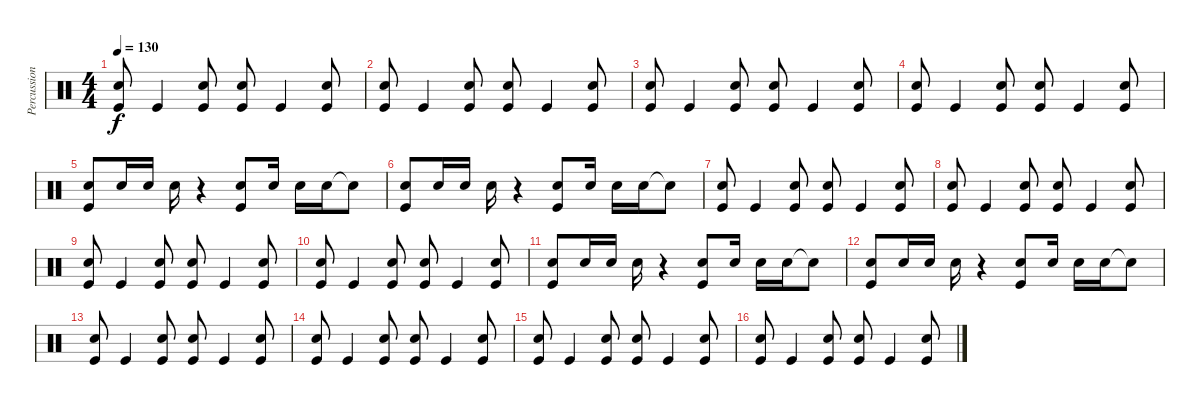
\track ("Percussion" "Percussion") {instrument percussion}
\staff {score}
\articulation defaults
\ts (4 4)
\tempo 130
\clef neutral
\ks c
("Kick (hit)" "Snare (hit) 2").8{dy f} "Kick (hit)".4 ("Kick (hit)" "Snare (hit) 2").8 ("Kick (hit)" "Snare (hit) 2").8 "Kick (hit)".4 ("Kick (hit)" "Snare (hit) 2").8 |
("Kick (hit)" "Snare (hit) 2").8 "Kick (hit)".4 ("Kick (hit)" "Snare (hit) 2").8 ("Kick (hit)" "Snare (hit) 2").8 "Kick (hit)".4 ("Kick (hit)" "Snare (hit) 2").8 |
("Kick (hit)" "Snare (hit) 2").8 "Kick (hit)".4 ("Kick (hit)" "Snare (hit) 2").8 ("Kick (hit)" "Snare (hit) 2").8 "Kick (hit)".4 ("Kick (hit)" "Snare (hit) 2").8 |
("Kick (hit)" "Snare (hit) 2").8 "Kick (hit)".4 ("Kick (hit)" "Snare (hit) 2").8 ("Kick (hit)" "Snare (hit) 2").8 "Kick (hit)".4 ("Kick (hit)" "Snare (hit) 2").8 |
("Kick (hit)" "Snare (hit) 2").8 "Snare (hit) 2".16 "Snare (hit) 2".16 "Snare (hit) 2".16 r.4 ("Kick (hit)" "Snare (hit) 2").8 "Snare (hit) 2".16 "Snare (hit) 2".16 "Snare (hit) 2".16 "Snare (hit)"{t}.8 |
("Kick (hit)" "Snare (hit) 2").8 "Snare (hit) 2".16 "Snare (hit) 2".16 "Snare (hit) 2".16 r.4 ("Kick (hit)" "Snare (hit) 2").8 "Snare (hit) 2".16 "Snare (hit) 2".16 "Snare (hit) 2".16 "Snare (hit)"{t}.8 |
("Kick (hit)" "Snare (hit) 2").8 "Kick (hit)".4 ("Kick (hit)" "Snare (hit) 2").8 ("Kick (hit)" "Snare (hit) 2").8 "Kick (hit)".4 ("Kick (hit)" "Snare (hit) 2").8 |
("Kick (hit)" "Snare (hit) 2").8 "Kick (hit)".4 ("Kick (hit)" "Snare (hit) 2").8 ("Kick (hit)" "Snare (hit) 2").8 "Kick (hit)".4 ("Kick (hit)" "Snare (hit) 2").8 |
("Kick (hit)" "Snare (hit) 2").8 "Kick (hit)".4 ("Kick (hit)" "Snare (hit) 2").8 ("Kick (hit)" "Snare (hit) 2").8 "Kick (hit)".4 ("Kick (hit)" "Snare (hit) 2").8 |
("Kick (hit)" "Snare (hit) 2").8 "Kick (hit)".4 ("Kick (hit)" "Snare (hit) 2").8 ("Kick (hit)" "Snare (hit) 2").8 "Kick (hit)".4 ("Kick (hit)" "Snare (hit) 2").8 |
("Kick (hit)" "Snare (hit) 2").8 "Snare (hit) 2".16 "Snare (hit) 2".16 "Snare (hit) 2".16 r.4 ("Kick (hit)" "Snare (hit) 2").8 "Snare (hit) 2".16 "Snare (hit) 2".16 "Snare (hit) 2".16 "Snare (hit)"{t}.8 |
("Kick (hit)" "Snare (hit) 2").8 "Snare (hit) 2".16 "Snare (hit) 2".16 "Snare (hit) 2".16 r.4 ("Kick (hit)" "Snare (hit) 2").8 "Snare (hit) 2".16 "Snare (hit) 2".16 "Snare (hit) 2".16 "Snare (hit)"{t}.8 |
("Kick (hit)" "Snare (hit) 2").8 "Kick (hit)".4 ("Kick (hit)" "Snare (hit) 2").8 ("Kick (hit)" "Snare (hit) 2").8 "Kick (hit)".4 ("Kick (hit)" "Snare (hit) 2").8 |
("Kick (hit)" "Snare (hit) 2").8 "Kick (hit)".4 ("Kick (hit)" "Snare (hit) 2").8 ("Kick (hit)" "Snare (hit) 2").8 "Kick (hit)".4 ("Kick (hit)" "Snare (hit) 2").8 |
("Kick (hit)" "Snare (hit) 2").8 "Kick (hit)".4 ("Kick (hit)" "Snare (hit) 2").8 ("Kick (hit)" "Snare (hit) 2").8 "Kick (hit)".4 ("Kick (hit)" "Snare (hit) 2").8 |
("Kick (hit)" "Snare (hit) 2").8 "Kick (hit)".4 ("Kick (hit)" "Snare (hit) 2").8 ("Kick (hit)" "Snare (hit) 2").8 "Kick (hit)".4 ("Kick (hit)" "Snare (hit) 2").8
